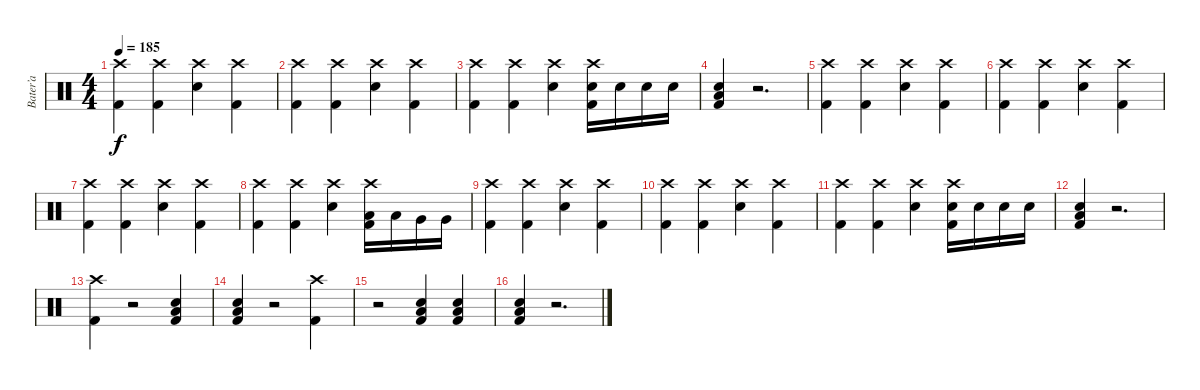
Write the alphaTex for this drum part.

\track ("Bater’a" "Bater’a") {instrument percussion}
\staff {score}
\articulation defaults
\ts (4 4)
\tempo 185
\clef neutral
\ks c
("Crash high (hit)" "Kick (hit) 2").4{dy f} ("Crash high (hit)" "Kick (hit) 2").4 ("Crash high (hit)" "Electric Snare (hit)").4 ("Crash high (hit)" "Kick (hit) 2").4 |
("Crash high (hit)" "Kick (hit) 2").4 ("Crash high (hit)" "Kick (hit) 2").4 ("Crash high (hit)" "Electric Snare (hit)").4 ("Crash high (hit)" "Kick (hit) 2").4 |
("Crash high (hit)" "Kick (hit) 2").4 ("Crash high (hit)" "Kick (hit) 2").4 ("Crash high (hit)" "Electric Snare (hit)").4 ("Crash high (hit)" "Electric Snare (hit)" "Kick (hit) 2").16 "Electric Snare (hit)".16 "Electric Snare (hit)".16 "Electric Snare (hit)".16 |
("Low Floor Tom (hit)" "Electric Snare (hit)" "Kick (hit) 2").4 r.2{d} |
("Crash high (hit)" "Kick (hit) 2").4 ("Crash high (hit)" "Kick (hit) 2").4 ("Crash high (hit)" "Electric Snare (hit)").4 ("Crash high (hit)" "Kick (hit) 2").4 |
("Crash high (hit)" "Kick (hit) 2").4 ("Crash high (hit)" "Kick (hit) 2").4 ("Crash high (hit)" "Electric Snare (hit)").4 ("Crash high (hit)" "Kick (hit) 2").4 |
("Crash high (hit)" "Kick (hit) 2").4 ("Crash high (hit)" "Kick (hit) 2").4 ("Crash high (hit)" "Electric Snare (hit)").4 ("Crash high (hit)" "Kick (hit) 2").4 |
("Crash high (hit)" "Kick (hit) 2").4 ("Crash high (hit)" "Kick (hit) 2").4 ("Crash high (hit)" "Electric Snare (hit)").4 ("Crash high (hit)" "Low Tom (hit)" "Kick (hit) 2").16 "Low Tom (hit)".16 "Very Low Tom (hit)".16 "Very Low Tom (hit)".16 |
("Crash high (hit)" "Kick (hit) 2").4 ("Crash high (hit)" "Kick (hit) 2").4 ("Crash high (hit)" "Electric Snare (hit)").4 ("Crash high (hit)" "Kick (hit) 2").4 |
("Crash high (hit)" "Kick (hit) 2").4 ("Crash high (hit)" "Kick (hit) 2").4 ("Crash high (hit)" "Electric Snare (hit)").4 ("Crash high (hit)" "Kick (hit) 2").4 |
("Crash high (hit)" "Kick (hit) 2").4 ("Crash high (hit)" "Kick (hit) 2").4 ("Crash high (hit)" "Electric Snare (hit)").4 ("Crash high (hit)" "Electric Snare (hit)" "Kick (hit) 2").16 "Electric Snare (hit)".16 "Electric Snare (hit)".16 "Electric Snare (hit)".16 |
("Low Floor Tom (hit)" "Electric Snare (hit)" "Kick (hit) 2").4 r.2{d} |
("Crash high (hit)" "Kick (hit) 2").4 r.2 ("Low Floor Tom (hit)" "Electric Snare (hit)" "Kick (hit) 2").4 |
("Low Floor Tom (hit)" "Electric Snare (hit)" "Kick (hit) 2").4 r.2 ("Crash high (hit)" "Kick (hit) 2").4 |
r.2 ("Low Floor Tom (hit)" "Electric Snare (hit)" "Kick (hit) 2").4 ("Low Floor Tom (hit)" "Electric Snare (hit)" "Kick (hit) 2").4 |
("Low Floor Tom (hit)" "Electric Snare (hit)" "Kick (hit) 2").4 r.2{d}
